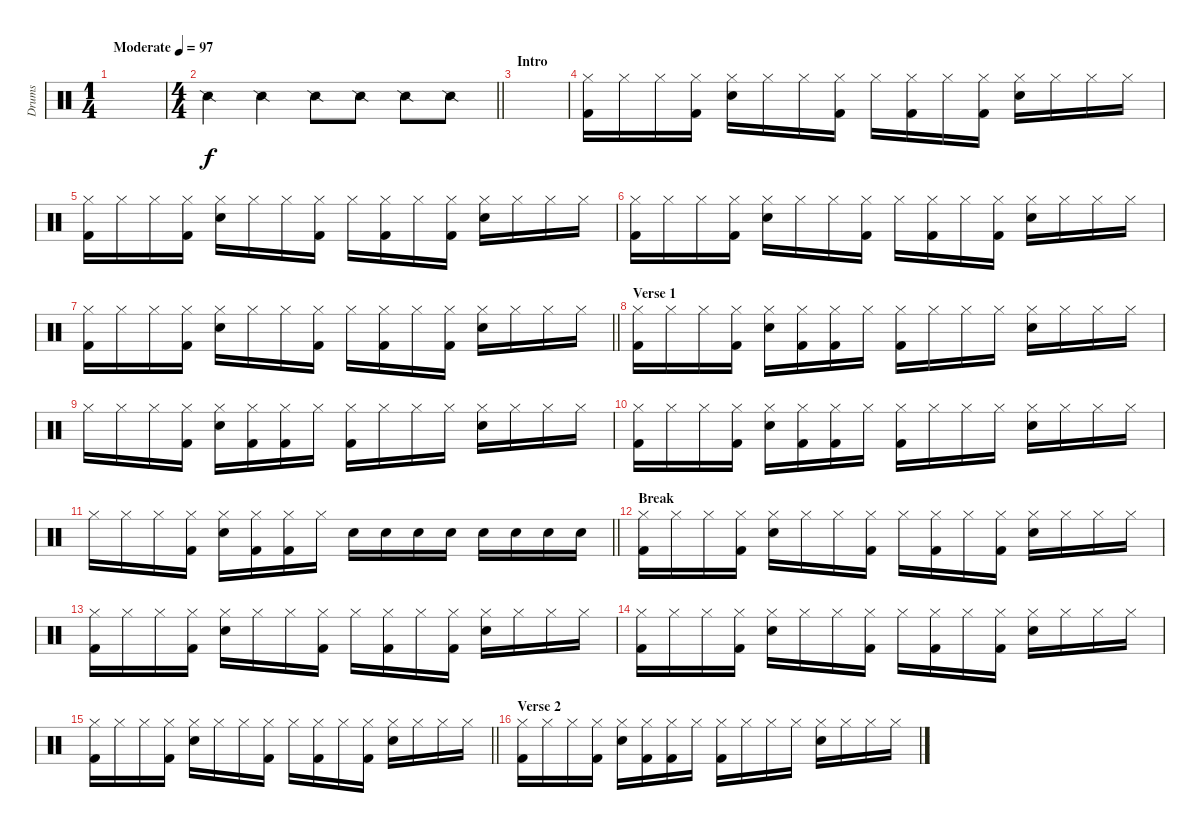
\track ("Drums" "Drums") {instrument percussion}
\staff {score}
\articulation defaults
\ts (1 4)
\tempo (97 "Moderate")
\clef neutral
\ks c
|
\ts (4 4)
\barLineRight lightlight "Snare (side stick) 2".4 "Snare (side stick) 2".4 "Snare (side stick) 2".8 "Snare (side stick) 2".8 "Snare (side stick) 2".8 "Snare (side stick) 2".8
|
\section ("" "Intro")
|
("Hi-Hat (closed)" "Kick (hit) 2").16 "Hi-Hat (closed)".16 "Hi-Hat (closed)".16 ("Hi-Hat (closed)" "Kick (hit) 2").16 ("Hi-Hat (closed)" "Snare (hit) 2").16 "Hi-Hat (closed)".16 "Hi-Hat (closed)".16 ("Hi-Hat (closed)" "Kick (hit) 2").16 "Hi-Hat (closed)".16 ("Hi-Hat (closed)" "Kick (hit) 2").16 "Hi-Hat (closed)".16 ("Hi-Hat (closed)" "Kick (hit) 2").16 ("Hi-Hat (closed)" "Snare (hit) 2").16 "Hi-Hat (closed)".16 "Hi-Hat (closed)".16 "Hi-Hat (closed)".16 |
("Hi-Hat (closed)" "Kick (hit) 2").16 "Hi-Hat (closed)".16 "Hi-Hat (closed)".16 ("Hi-Hat (closed)" "Kick (hit) 2").16 ("Hi-Hat (closed)" "Snare (hit) 2").16 "Hi-Hat (closed)".16 "Hi-Hat (closed)".16 ("Hi-Hat (closed)" "Kick (hit) 2").16 "Hi-Hat (closed)".16 ("Hi-Hat (closed)" "Kick (hit) 2").16 "Hi-Hat (closed)".16 ("Hi-Hat (closed)" "Kick (hit) 2").16 ("Hi-Hat (closed)" "Snare (hit) 2").16 "Hi-Hat (closed)".16 "Hi-Hat (closed)".16 "Hi-Hat (closed)".16 |
("Hi-Hat (closed)" "Kick (hit) 2").16 "Hi-Hat (closed)".16 "Hi-Hat (closed)".16 ("Hi-Hat (closed)" "Kick (hit) 2").16 ("Hi-Hat (closed)" "Snare (hit) 2").16 "Hi-Hat (closed)".16 "Hi-Hat (closed)".16 ("Hi-Hat (closed)" "Kick (hit) 2").16 "Hi-Hat (closed)".16 ("Hi-Hat (closed)" "Kick (hit) 2").16 "Hi-Hat (closed)".16 ("Hi-Hat (closed)" "Kick (hit) 2").16 ("Hi-Hat (closed)" "Snare (hit) 2").16 "Hi-Hat (closed)".16 "Hi-Hat (closed)".16 "Hi-Hat (closed)".16 |
\barLineRight lightlight
("Hi-Hat (closed)" "Kick (hit) 2").16 "Hi-Hat (closed)".16 "Hi-Hat (closed)".16 ("Hi-Hat (closed)" "Kick (hit) 2").16 ("Hi-Hat (closed)" "Snare (hit) 2").16 "Hi-Hat (closed)".16 "Hi-Hat (closed)".16 ("Hi-Hat (closed)" "Kick (hit) 2").16 "Hi-Hat (closed)".16 ("Hi-Hat (closed)" "Kick (hit) 2").16 "Hi-Hat (closed)".16 ("Hi-Hat (closed)" "Kick (hit) 2").16 ("Hi-Hat (closed)" "Snare (hit) 2").16 "Hi-Hat (closed)".16 "Hi-Hat (closed)".16 "Hi-Hat (closed)".16 |
\section ("" "Verse 1")
("Hi-Hat (closed)" "Kick (hit) 2").16 "Hi-Hat (closed)".16 "Hi-Hat (closed)".16 ("Hi-Hat (closed)" "Kick (hit) 2").16 ("Hi-Hat (closed)" "Snare (hit) 2").16 ("Hi-Hat (closed)" "Kick (hit) 2").16 ("Hi-Hat (closed)" "Kick (hit) 2").16 "Hi-Hat (closed)".16 ("Hi-Hat (closed)" "Kick (hit) 2").16 "Hi-Hat (closed)".16 "Hi-Hat (closed)".16 "Hi-Hat (closed)".16 ("Hi-Hat (closed)" "Snare (hit) 2").16 "Hi-Hat (closed)".16 "Hi-Hat (closed)".16 "Hi-Hat (closed)".16 |
"Hi-Hat (closed)".16 "Hi-Hat (closed)".16 "Hi-Hat (closed)".16 ("Hi-Hat (closed)" "Kick (hit) 2").16 ("Hi-Hat (closed)" "Snare (hit) 2").16 ("Hi-Hat (closed)" "Kick (hit) 2").16 ("Hi-Hat (closed)" "Kick (hit) 2").16 "Hi-Hat (closed)".16 ("Hi-Hat (closed)" "Kick (hit) 2").16 "Hi-Hat (closed)".16 "Hi-Hat (closed)".16 "Hi-Hat (closed)".16 ("Hi-Hat (closed)" "Snare (hit) 2").16 "Hi-Hat (closed)".16 "Hi-Hat (closed)".16 "Hi-Hat (closed)".16 |
("Hi-Hat (closed)" "Kick (hit) 2").16 "Hi-Hat (closed)".16 "Hi-Hat (closed)".16 ("Hi-Hat (closed)" "Kick (hit) 2").16 ("Hi-Hat (closed)" "Snare (hit) 2").16 ("Hi-Hat (closed)" "Kick (hit) 2").16 ("Hi-Hat (closed)" "Kick (hit) 2").16 "Hi-Hat (closed)".16 ("Hi-Hat (closed)" "Kick (hit) 2").16 "Hi-Hat (closed)".16 "Hi-Hat (closed)".16 "Hi-Hat (closed)".16 ("Hi-Hat (closed)" "Snare (hit) 2").16 "Hi-Hat (closed)".16 "Hi-Hat (closed)".16 "Hi-Hat (closed)".16 |
\barLineRight lightlight "Hi-Hat (closed)".16 "Hi-Hat (closed)".16 "Hi-Hat (closed)".16
("Hi-Hat (closed)" "Kick (hit) 2").16 ("Hi-Hat (closed)" "Snare (hit) 2").16 ("Hi-Hat (closed)" "Kick (hit) 2").16 ("Hi-Hat (closed)" "Kick (hit) 2").16 "Hi-Hat (closed)".16 "Snare (hit) 2".16 "Snare (hit) 2".16 "Snare (hit) 2".16 "Snare (hit) 2".16 "Snare (hit) 2".16 "Snare (hit) 2".16 "Snare (hit) 2".16 "Snare (hit) 2".16 |
\section ("" "Break")
("Hi-Hat (closed)" "Kick (hit) 2").16 "Hi-Hat (closed)".16 "Hi-Hat (closed)".16 ("Hi-Hat (closed)" "Kick (hit) 2").16 ("Hi-Hat (closed)" "Snare (hit) 2").16 "Hi-Hat (closed)".16 "Hi-Hat (closed)".16 ("Hi-Hat (closed)" "Kick (hit) 2").16 "Hi-Hat (closed)".16 ("Hi-Hat (closed)" "Kick (hit) 2").16 "Hi-Hat (closed)".16 ("Hi-Hat (closed)" "Kick (hit) 2").16 ("Hi-Hat (closed)" "Snare (hit) 2").16 "Hi-Hat (closed)".16 "Hi-Hat (closed)".16 "Hi-Hat (closed)".16 |
("Hi-Hat (closed)" "Kick (hit) 2").16 "Hi-Hat (closed)".16 "Hi-Hat (closed)".16 ("Hi-Hat (closed)" "Kick (hit) 2").16 ("Hi-Hat (closed)" "Snare (hit) 2").16 "Hi-Hat (closed)".16 "Hi-Hat (closed)".16 ("Hi-Hat (closed)" "Kick (hit) 2").16 "Hi-Hat (closed)".16 ("Hi-Hat (closed)" "Kick (hit) 2").16 "Hi-Hat (closed)".16 ("Hi-Hat (closed)" "Kick (hit) 2").16 ("Hi-Hat (closed)" "Snare (hit) 2").16 "Hi-Hat (closed)".16 "Hi-Hat (closed)".16 "Hi-Hat (closed)".16 |
("Hi-Hat (closed)" "Kick (hit) 2").16 "Hi-Hat (closed)".16 "Hi-Hat (closed)".16 ("Hi-Hat (closed)" "Kick (hit) 2").16 ("Hi-Hat (closed)" "Snare (hit) 2").16 "Hi-Hat (closed)".16 "Hi-Hat (closed)".16 ("Hi-Hat (closed)" "Kick (hit) 2").16 "Hi-Hat (closed)".16 ("Hi-Hat (closed)" "Kick (hit) 2").16 "Hi-Hat (closed)".16 ("Hi-Hat (closed)" "Kick (hit) 2").16 ("Hi-Hat (closed)" "Snare (hit) 2").16 "Hi-Hat (closed)".16 "Hi-Hat (closed)".16 "Hi-Hat (closed)".16 |
\barLineRight lightlight
("Hi-Hat (closed)" "Kick (hit) 2").16 "Hi-Hat (closed)".16 "Hi-Hat (closed)".16 ("Hi-Hat (closed)" "Kick (hit) 2").16 ("Hi-Hat (closed)" "Snare (hit) 2").16 "Hi-Hat (closed)".16 "Hi-Hat (closed)".16 ("Hi-Hat (closed)" "Kick (hit) 2").16 "Hi-Hat (closed)".16 ("Hi-Hat (closed)" "Kick (hit) 2").16 "Hi-Hat (closed)".16 ("Hi-Hat (closed)" "Kick (hit) 2").16 ("Hi-Hat (closed)" "Snare (hit) 2").16 "Hi-Hat (closed)".16 "Hi-Hat (closed)".16 "Hi-Hat (closed)".16 |
\section ("" "Verse 2")
("Hi-Hat (closed)" "Kick (hit) 2").16 "Hi-Hat (closed)".16 "Hi-Hat (closed)".16 ("Hi-Hat (closed)" "Kick (hit) 2").16 ("Hi-Hat (closed)" "Snare (hit) 2").16 ("Hi-Hat (closed)" "Kick (hit) 2").16 ("Hi-Hat (closed)" "Kick (hit) 2").16 "Hi-Hat (closed)".16 ("Hi-Hat (closed)" "Kick (hit) 2").16 "Hi-Hat (closed)".16 "Hi-Hat (closed)".16 "Hi-Hat (closed)".16 ("Hi-Hat (closed)" "Snare (hit) 2").16 "Hi-Hat (closed)".16 "Hi-Hat (closed)".16 "Hi-Hat (closed)".16
